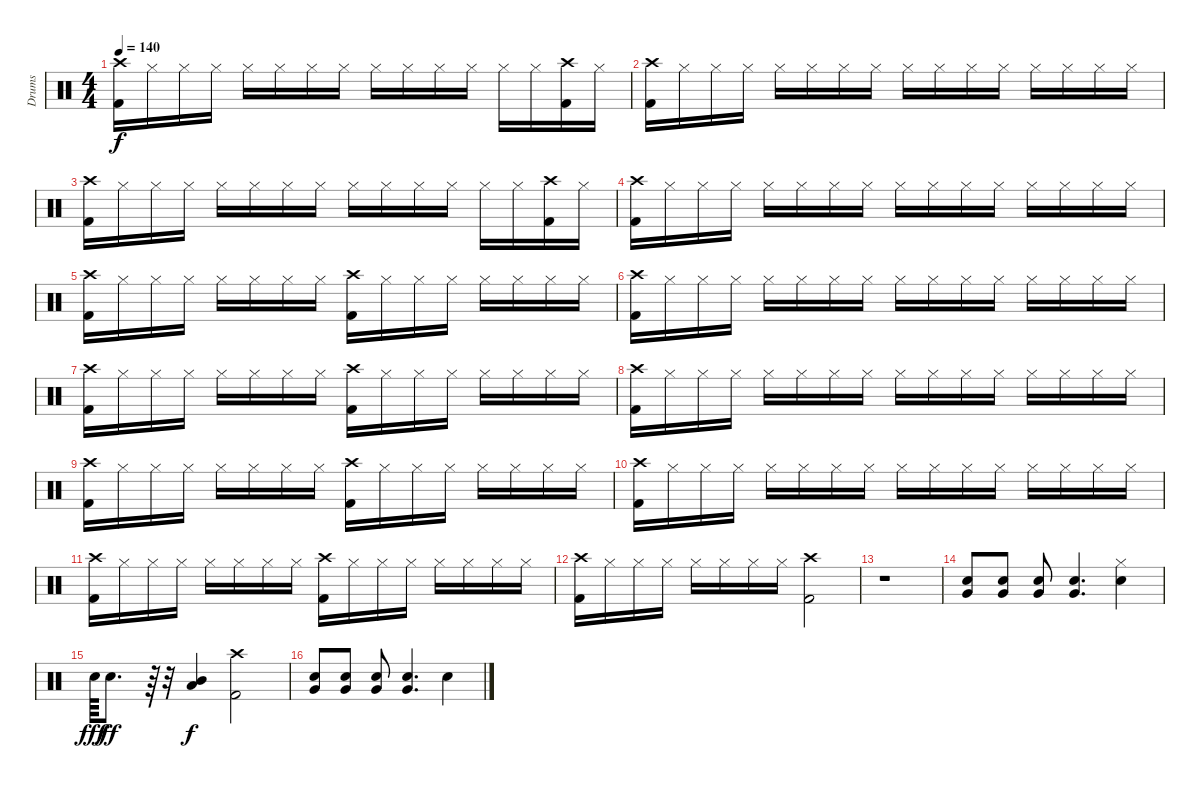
\track ("Drums" "Drums") {instrument percussion}
\staff {score}
\articulation defaults
\ts (4 4)
\tempo 140
\clef neutral
\ks c
("Crash high (hit)" "Kick (hit) 2").16{dy f} "Hi-Hat (closed)".16 "Hi-Hat (closed)".16 "Hi-Hat (closed)".16 "Hi-Hat (closed)".16 "Hi-Hat (closed)".16 "Hi-Hat (closed)".16 "Hi-Hat (closed)".16 "Hi-Hat (closed)".16 "Hi-Hat (closed)".16 "Hi-Hat (closed)".16 "Hi-Hat (closed)".16 "Hi-Hat (closed)".16 "Hi-Hat (closed)".16 ("Crash high (hit)" "Kick (hit) 2").16 "Hi-Hat (closed)".16 |
("Crash high (hit)" "Kick (hit) 2").16 "Hi-Hat (closed)".16 "Hi-Hat (closed)".16 "Hi-Hat (closed)".16 "Hi-Hat (closed)".16 "Hi-Hat (closed)".16 "Hi-Hat (closed)".16 "Hi-Hat (closed)".16 "Hi-Hat (closed)".16 "Hi-Hat (closed)".16 "Hi-Hat (closed)".16 "Hi-Hat (closed)".16 "Hi-Hat (closed)".16 "Hi-Hat (closed)".16 "Hi-Hat (closed)".16 "Hi-Hat (closed)".16 |
("Crash high (hit)" "Kick (hit) 2").16 "Hi-Hat (closed)".16 "Hi-Hat (closed)".16 "Hi-Hat (closed)".16 "Hi-Hat (closed)".16 "Hi-Hat (closed)".16 "Hi-Hat (closed)".16 "Hi-Hat (closed)".16 "Hi-Hat (closed)".16 "Hi-Hat (closed)".16 "Hi-Hat (closed)".16 "Hi-Hat (closed)".16 "Hi-Hat (closed)".16 "Hi-Hat (closed)".16 ("Crash high (hit)" "Kick (hit) 2").16 "Hi-Hat (closed)".16 |
("Crash high (hit)" "Kick (hit) 2").16 "Hi-Hat (closed)".16 "Hi-Hat (closed)".16 "Hi-Hat (closed)".16 "Hi-Hat (closed)".16 "Hi-Hat (closed)".16 "Hi-Hat (closed)".16 "Hi-Hat (closed)".16 "Hi-Hat (closed)".16 "Hi-Hat (closed)".16 "Hi-Hat (closed)".16 "Hi-Hat (closed)".16 "Hi-Hat (closed)".16 "Hi-Hat (closed)".16 "Hi-Hat (closed)".16 "Hi-Hat (closed)".16 |
("Crash high (hit)" "Kick (hit) 2").16 "Hi-Hat (closed)".16 "Hi-Hat (closed)".16 "Hi-Hat (closed)".16 "Hi-Hat (closed)".16 "Hi-Hat (closed)".16 "Hi-Hat (closed)".16 "Hi-Hat (closed)".16 ("Crash high (hit)" "Kick (hit) 2").16 "Hi-Hat (closed)".16 "Hi-Hat (closed)".16 "Hi-Hat (closed)".16 "Hi-Hat (closed)".16 "Hi-Hat (closed)".16 "Hi-Hat (closed)".16 "Hi-Hat (closed)".16 |
("Crash high (hit)" "Kick (hit) 2").16 "Hi-Hat (closed)".16 "Hi-Hat (closed)".16 "Hi-Hat (closed)".16 "Hi-Hat (closed)".16 "Hi-Hat (closed)".16 "Hi-Hat (closed)".16 "Hi-Hat (closed)".16 "Hi-Hat (closed)".16 "Hi-Hat (closed)".16 "Hi-Hat (closed)".16 "Hi-Hat (closed)".16 "Hi-Hat (closed)".16 "Hi-Hat (closed)".16 "Hi-Hat (closed)".16 "Hi-Hat (closed)".16 |
("Crash high (hit)" "Kick (hit) 2").16 "Hi-Hat (closed)".16 "Hi-Hat (closed)".16 "Hi-Hat (closed)".16 "Hi-Hat (closed)".16 "Hi-Hat (closed)".16 "Hi-Hat (closed)".16 "Hi-Hat (closed)".16 ("Crash high (hit)" "Kick (hit) 2").16 "Hi-Hat (closed)".16 "Hi-Hat (closed)".16 "Hi-Hat (closed)".16 "Hi-Hat (closed)".16 "Hi-Hat (closed)".16 "Hi-Hat (closed)".16 "Hi-Hat (closed)".16 |
("Crash high (hit)" "Kick (hit) 2").16 "Hi-Hat (closed)".16 "Hi-Hat (closed)".16 "Hi-Hat (closed)".16 "Hi-Hat (closed)".16 "Hi-Hat (closed)".16 "Hi-Hat (closed)".16 "Hi-Hat (closed)".16 "Hi-Hat (closed)".16 "Hi-Hat (closed)".16 "Hi-Hat (closed)".16 "Hi-Hat (closed)".16 "Hi-Hat (closed)".16 "Hi-Hat (closed)".16 "Hi-Hat (closed)".16 "Hi-Hat (closed)".16 |
("Crash high (hit)" "Kick (hit) 2").16 "Hi-Hat (closed)".16 "Hi-Hat (closed)".16 "Hi-Hat (closed)".16 "Hi-Hat (closed)".16 "Hi-Hat (closed)".16 "Hi-Hat (closed)".16 "Hi-Hat (closed)".16 ("Crash high (hit)" "Kick (hit) 2").16 "Hi-Hat (closed)".16 "Hi-Hat (closed)".16 "Hi-Hat (closed)".16 "Hi-Hat (closed)".16 "Hi-Hat (closed)".16 "Hi-Hat (closed)".16 "Hi-Hat (closed)".16 |
("Crash high (hit)" "Kick (hit) 2").16 "Hi-Hat (closed)".16 "Hi-Hat (closed)".16 "Hi-Hat (closed)".16 "Hi-Hat (closed)".16 "Hi-Hat (closed)".16 "Hi-Hat (closed)".16 "Hi-Hat (closed)".16 "Hi-Hat (closed)".16 "Hi-Hat (closed)".16 "Hi-Hat (closed)".16 "Hi-Hat (closed)".16 "Hi-Hat (closed)".16 "Hi-Hat (closed)".16 "Hi-Hat (closed)".16 "Hi-Hat (closed)".16 |
("Crash high (hit)" "Kick (hit) 2").16 "Hi-Hat (closed)".16 "Hi-Hat (closed)".16 "Hi-Hat (closed)".16 "Hi-Hat (closed)".16 "Hi-Hat (closed)".16 "Hi-Hat (closed)".16 "Hi-Hat (closed)".16 ("Crash high (hit)" "Kick (hit) 2").16 "Hi-Hat (closed)".16 "Hi-Hat (closed)".16 "Hi-Hat (closed)".16 "Hi-Hat (closed)".16 "Hi-Hat (closed)".16 "Hi-Hat (closed)".16 "Hi-Hat (closed)".16 |
("Crash high (hit)" "Kick (hit) 2").16 "Hi-Hat (closed)".16 "Hi-Hat (closed)".16 "Hi-Hat (closed)".16 "Hi-Hat (closed)".16 "Hi-Hat (closed)".16 "Hi-Hat (closed)".16 "Hi-Hat (closed)".16 ("Crash high (hit)" "Kick (hit) 2").2 |
r.1 |
("Very Low Tom (hit)" "Snare (hit) 2").8 ("Very Low Tom (hit)" "Snare (hit) 2").8 ("Very Low Tom (hit)" "Snare (hit) 2").8 ("Very Low Tom (hit)" "Snare (hit) 2").4{d} ("Hi-Hat (closed)" "Snare (hit) 2").4 |
"Snare (hit) 2".64{dy fff} "Snare (hit) 2".8{d dy ff} r.64 r.32 ("Mid Tom (hit)" "Low Tom (hit)").4{dy f} ("Crash high (hit)" "Kick (hit) 2").2 |
("Very Low Tom (hit)" "Snare (hit) 2").8 ("Very Low Tom (hit)" "Snare (hit) 2").8 ("Very Low Tom (hit)" "Snare (hit) 2").8 ("Very Low Tom (hit)" "Snare (hit) 2").4{d} "Snare (hit) 2".4
